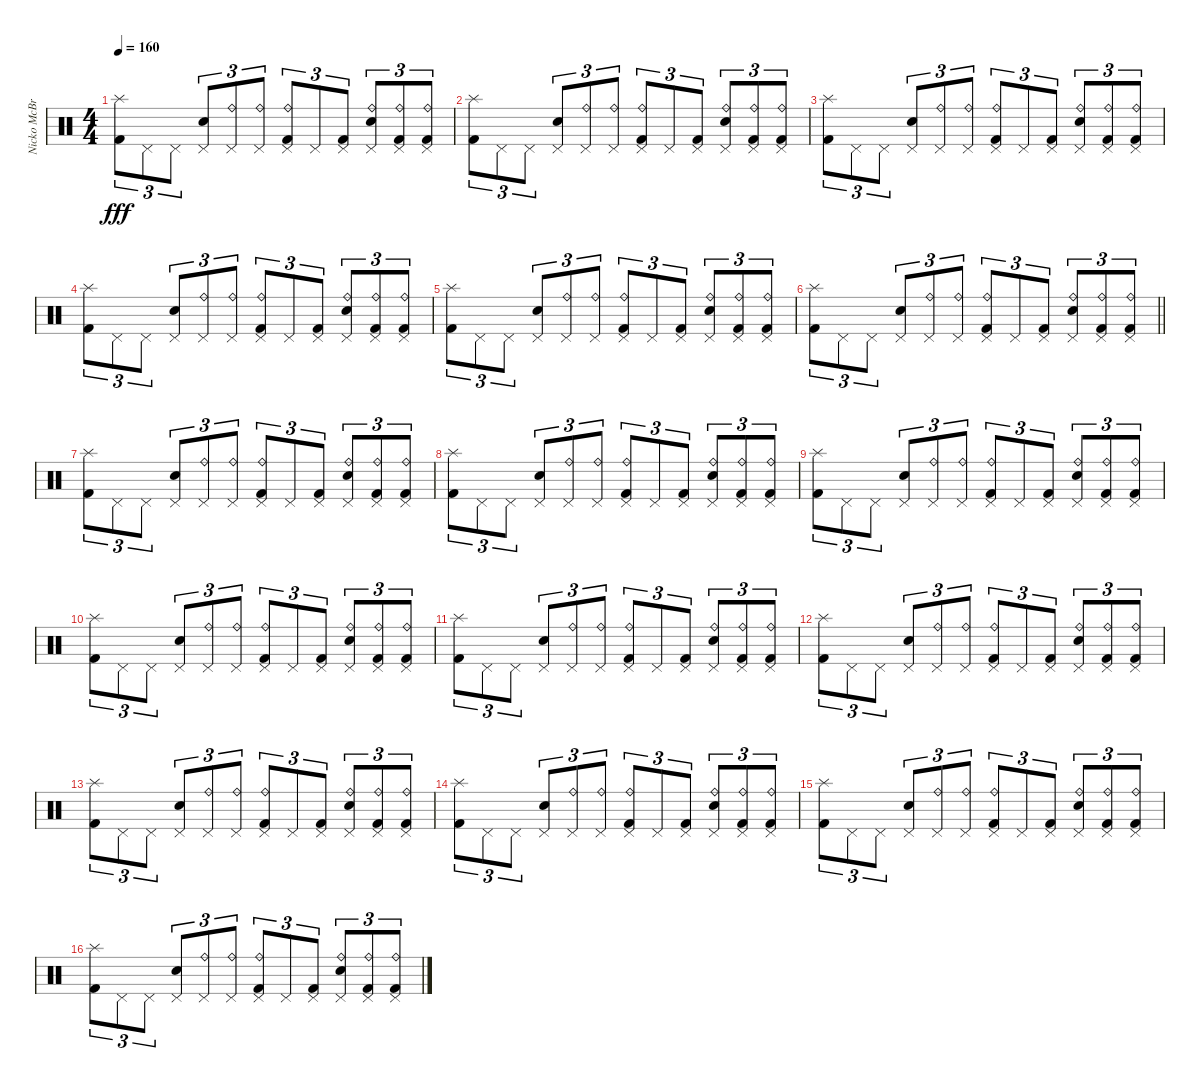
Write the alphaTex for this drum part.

\track ("Nicko McBrian (Drums)" "Nicko McBr") {instrument percussion}
\staff {score}
\articulation defaults
\ts (4 4)
\tempo 160
\clef neutral
\ks c
("Splash (hit)" "Kick (hit) 2").8{tu (3 2) dy fff} "Pedal Hi-Hat (hit)".8{tu (3 2)} "Pedal Hi-Hat (hit)".8{tu (3 2)} ("Pedal Hi-Hat (hit)" "Snare (hit) 2").8{tu (3 2)} ("Pedal Hi-Hat (hit)" "Ride (bell)").8{tu (3 2)} ("Pedal Hi-Hat (hit)" "Ride (bell)").8{tu (3 2)} ("Pedal Hi-Hat (hit)" "Kick (hit) 2" "Ride (bell)").8{tu (3 2)} "Pedal Hi-Hat (hit)".8{tu (3 2)} ("Pedal Hi-Hat (hit)" "Kick (hit) 2").8{tu (3 2)} ("Pedal Hi-Hat (hit)" "Snare (hit) 2" "Ride (bell)").8{tu (3 2)} ("Pedal Hi-Hat (hit)" "Kick (hit) 2" "Ride (bell)").8{tu (3 2)} ("Pedal Hi-Hat (hit)" "Kick (hit) 2" "Ride (bell)").8{tu (3 2)} |
("Splash (hit)" "Kick (hit) 2").8{tu (3 2)} "Pedal Hi-Hat (hit)".8{tu (3 2)} "Pedal Hi-Hat (hit)".8{tu (3 2)} ("Pedal Hi-Hat (hit)" "Snare (hit) 2").8{tu (3 2)} ("Pedal Hi-Hat (hit)" "Ride (bell)").8{tu (3 2)} ("Pedal Hi-Hat (hit)" "Ride (bell)").8{tu (3 2)} ("Pedal Hi-Hat (hit)" "Kick (hit) 2" "Ride (bell)").8{tu (3 2)} "Pedal Hi-Hat (hit)".8{tu (3 2)} ("Pedal Hi-Hat (hit)" "Kick (hit) 2").8{tu (3 2)} ("Pedal Hi-Hat (hit)" "Snare (hit) 2" "Ride (bell)").8{tu (3 2)} ("Pedal Hi-Hat (hit)" "Kick (hit) 2" "Ride (bell)").8{tu (3 2)} ("Pedal Hi-Hat (hit)" "Kick (hit) 2" "Ride (bell)").8{tu (3 2)} |
("Splash (hit)" "Kick (hit) 2").8{tu (3 2)} "Pedal Hi-Hat (hit)".8{tu (3 2)} "Pedal Hi-Hat (hit)".8{tu (3 2)} ("Pedal Hi-Hat (hit)" "Snare (hit) 2").8{tu (3 2)} ("Pedal Hi-Hat (hit)" "Ride (bell)").8{tu (3 2)} ("Pedal Hi-Hat (hit)" "Ride (bell)").8{tu (3 2)} ("Pedal Hi-Hat (hit)" "Kick (hit) 2" "Ride (bell)").8{tu (3 2)} "Pedal Hi-Hat (hit)".8{tu (3 2)} ("Pedal Hi-Hat (hit)" "Kick (hit) 2").8{tu (3 2)} ("Pedal Hi-Hat (hit)" "Snare (hit) 2" "Ride (bell)").8{tu (3 2)} ("Pedal Hi-Hat (hit)" "Kick (hit) 2" "Ride (bell)").8{tu (3 2)} ("Pedal Hi-Hat (hit)" "Kick (hit) 2" "Ride (bell)").8{tu (3 2)} |
("Splash (hit)" "Kick (hit) 2").8{tu (3 2)} "Pedal Hi-Hat (hit)".8{tu (3 2)} "Pedal Hi-Hat (hit)".8{tu (3 2)} ("Pedal Hi-Hat (hit)" "Snare (hit) 2").8{tu (3 2)} ("Pedal Hi-Hat (hit)" "Ride (bell)").8{tu (3 2)} ("Pedal Hi-Hat (hit)" "Ride (bell)").8{tu (3 2)} ("Pedal Hi-Hat (hit)" "Kick (hit) 2" "Ride (bell)").8{tu (3 2)} "Pedal Hi-Hat (hit)".8{tu (3 2)} ("Pedal Hi-Hat (hit)" "Kick (hit) 2").8{tu (3 2)} ("Pedal Hi-Hat (hit)" "Snare (hit) 2" "Ride (bell)").8{tu (3 2)} ("Pedal Hi-Hat (hit)" "Kick (hit) 2" "Ride (bell)").8{tu (3 2)} ("Pedal Hi-Hat (hit)" "Kick (hit) 2" "Ride (bell)").8{tu (3 2)} |
("Splash (hit)" "Kick (hit) 2").8{tu (3 2)} "Pedal Hi-Hat (hit)".8{tu (3 2)} "Pedal Hi-Hat (hit)".8{tu (3 2)} ("Pedal Hi-Hat (hit)" "Snare (hit) 2").8{tu (3 2)} ("Pedal Hi-Hat (hit)" "Ride (bell)").8{tu (3 2)} ("Pedal Hi-Hat (hit)" "Ride (bell)").8{tu (3 2)} ("Pedal Hi-Hat (hit)" "Kick (hit) 2" "Ride (bell)").8{tu (3 2)} "Pedal Hi-Hat (hit)".8{tu (3 2)} ("Pedal Hi-Hat (hit)" "Kick (hit) 2").8{tu (3 2)} ("Pedal Hi-Hat (hit)" "Snare (hit) 2" "Ride (bell)").8{tu (3 2)} ("Pedal Hi-Hat (hit)" "Kick (hit) 2" "Ride (bell)").8{tu (3 2)} ("Pedal Hi-Hat (hit)" "Kick (hit) 2" "Ride (bell)").8{tu (3 2)} |
\barLineRight lightlight
("Splash (hit)" "Kick (hit) 2").8{tu (3 2)} "Pedal Hi-Hat (hit)".8{tu (3 2)} "Pedal Hi-Hat (hit)".8{tu (3 2)} ("Pedal Hi-Hat (hit)" "Snare (hit) 2").8{tu (3 2)} ("Pedal Hi-Hat (hit)" "Ride (bell)").8{tu (3 2)} ("Pedal Hi-Hat (hit)" "Ride (bell)").8{tu (3 2)} ("Pedal Hi-Hat (hit)" "Kick (hit) 2" "Ride (bell)").8{tu (3 2)} "Pedal Hi-Hat (hit)".8{tu (3 2)} ("Pedal Hi-Hat (hit)" "Kick (hit) 2").8{tu (3 2)} ("Pedal Hi-Hat (hit)" "Snare (hit) 2" "Ride (bell)").8{tu (3 2)} ("Pedal Hi-Hat (hit)" "Kick (hit) 2" "Ride (bell)").8{tu (3 2)} ("Pedal Hi-Hat (hit)" "Kick (hit) 2" "Ride (bell)").8{tu (3 2)} |
("Splash (hit)" "Kick (hit) 2").8{tu (3 2)} "Pedal Hi-Hat (hit)".8{tu (3 2)} "Pedal Hi-Hat (hit)".8{tu (3 2)} ("Pedal Hi-Hat (hit)" "Snare (hit) 2").8{tu (3 2)} ("Pedal Hi-Hat (hit)" "Ride (bell)").8{tu (3 2)} ("Pedal Hi-Hat (hit)" "Ride (bell)").8{tu (3 2)} ("Pedal Hi-Hat (hit)" "Kick (hit) 2" "Ride (bell)").8{tu (3 2)} "Pedal Hi-Hat (hit)".8{tu (3 2)} ("Pedal Hi-Hat (hit)" "Kick (hit) 2").8{tu (3 2)} ("Pedal Hi-Hat (hit)" "Snare (hit) 2" "Ride (bell)").8{tu (3 2)} ("Pedal Hi-Hat (hit)" "Kick (hit) 2" "Ride (bell)").8{tu (3 2)} ("Pedal Hi-Hat (hit)" "Kick (hit) 2" "Ride (bell)").8{tu (3 2)} |
("Splash (hit)" "Kick (hit) 2").8{tu (3 2)} "Pedal Hi-Hat (hit)".8{tu (3 2)} "Pedal Hi-Hat (hit)".8{tu (3 2)} ("Pedal Hi-Hat (hit)" "Snare (hit) 2").8{tu (3 2)} ("Pedal Hi-Hat (hit)" "Ride (bell)").8{tu (3 2)} ("Pedal Hi-Hat (hit)" "Ride (bell)").8{tu (3 2)} ("Pedal Hi-Hat (hit)" "Kick (hit) 2" "Ride (bell)").8{tu (3 2)} "Pedal Hi-Hat (hit)".8{tu (3 2)} ("Pedal Hi-Hat (hit)" "Kick (hit) 2").8{tu (3 2)} ("Pedal Hi-Hat (hit)" "Snare (hit) 2" "Ride (bell)").8{tu (3 2)} ("Pedal Hi-Hat (hit)" "Kick (hit) 2" "Ride (bell)").8{tu (3 2)} ("Pedal Hi-Hat (hit)" "Kick (hit) 2" "Ride (bell)").8{tu (3 2)} |
("Splash (hit)" "Kick (hit) 2").8{tu (3 2)} "Pedal Hi-Hat (hit)".8{tu (3 2)} "Pedal Hi-Hat (hit)".8{tu (3 2)} ("Pedal Hi-Hat (hit)" "Snare (hit) 2").8{tu (3 2)} ("Pedal Hi-Hat (hit)" "Ride (bell)").8{tu (3 2)} ("Pedal Hi-Hat (hit)" "Ride (bell)").8{tu (3 2)} ("Pedal Hi-Hat (hit)" "Kick (hit) 2" "Ride (bell)").8{tu (3 2)} "Pedal Hi-Hat (hit)".8{tu (3 2)} ("Pedal Hi-Hat (hit)" "Kick (hit) 2").8{tu (3 2)} ("Pedal Hi-Hat (hit)" "Snare (hit) 2" "Ride (bell)").8{tu (3 2)} ("Pedal Hi-Hat (hit)" "Kick (hit) 2" "Ride (bell)").8{tu (3 2)} ("Pedal Hi-Hat (hit)" "Kick (hit) 2" "Ride (bell)").8{tu (3 2)} |
("Splash (hit)" "Kick (hit) 2").8{tu (3 2)} "Pedal Hi-Hat (hit)".8{tu (3 2)} "Pedal Hi-Hat (hit)".8{tu (3 2)} ("Pedal Hi-Hat (hit)" "Snare (hit) 2").8{tu (3 2)} ("Pedal Hi-Hat (hit)" "Ride (bell)").8{tu (3 2)} ("Pedal Hi-Hat (hit)" "Ride (bell)").8{tu (3 2)} ("Pedal Hi-Hat (hit)" "Kick (hit) 2" "Ride (bell)").8{tu (3 2)} "Pedal Hi-Hat (hit)".8{tu (3 2)} ("Pedal Hi-Hat (hit)" "Kick (hit) 2").8{tu (3 2)} ("Pedal Hi-Hat (hit)" "Snare (hit) 2" "Ride (bell)").8{tu (3 2)} ("Pedal Hi-Hat (hit)" "Kick (hit) 2" "Ride (bell)").8{tu (3 2)} ("Pedal Hi-Hat (hit)" "Kick (hit) 2" "Ride (bell)").8{tu (3 2)} |
("Splash (hit)" "Kick (hit) 2").8{tu (3 2)} "Pedal Hi-Hat (hit)".8{tu (3 2)} "Pedal Hi-Hat (hit)".8{tu (3 2)} ("Pedal Hi-Hat (hit)" "Snare (hit) 2").8{tu (3 2)} ("Pedal Hi-Hat (hit)" "Ride (bell)").8{tu (3 2)} ("Pedal Hi-Hat (hit)" "Ride (bell)").8{tu (3 2)} ("Pedal Hi-Hat (hit)" "Kick (hit) 2" "Ride (bell)").8{tu (3 2)} "Pedal Hi-Hat (hit)".8{tu (3 2)} ("Pedal Hi-Hat (hit)" "Kick (hit) 2").8{tu (3 2)} ("Pedal Hi-Hat (hit)" "Snare (hit) 2" "Ride (bell)").8{tu (3 2)} ("Pedal Hi-Hat (hit)" "Kick (hit) 2" "Ride (bell)").8{tu (3 2)} ("Pedal Hi-Hat (hit)" "Kick (hit) 2" "Ride (bell)").8{tu (3 2)} |
("Splash (hit)" "Kick (hit) 2").8{tu (3 2)} "Pedal Hi-Hat (hit)".8{tu (3 2)} "Pedal Hi-Hat (hit)".8{tu (3 2)} ("Pedal Hi-Hat (hit)" "Snare (hit) 2").8{tu (3 2)} ("Pedal Hi-Hat (hit)" "Ride (bell)").8{tu (3 2)} ("Pedal Hi-Hat (hit)" "Ride (bell)").8{tu (3 2)} ("Pedal Hi-Hat (hit)" "Kick (hit) 2" "Ride (bell)").8{tu (3 2)} "Pedal Hi-Hat (hit)".8{tu (3 2)} ("Pedal Hi-Hat (hit)" "Kick (hit) 2").8{tu (3 2)} ("Pedal Hi-Hat (hit)" "Snare (hit) 2" "Ride (bell)").8{tu (3 2)} ("Pedal Hi-Hat (hit)" "Kick (hit) 2" "Ride (bell)").8{tu (3 2)} ("Pedal Hi-Hat (hit)" "Kick (hit) 2" "Ride (bell)").8{tu (3 2)} |
("Splash (hit)" "Kick (hit) 2").8{tu (3 2)} "Pedal Hi-Hat (hit)".8{tu (3 2)} "Pedal Hi-Hat (hit)".8{tu (3 2)} ("Pedal Hi-Hat (hit)" "Snare (hit) 2").8{tu (3 2)} ("Pedal Hi-Hat (hit)" "Ride (bell)").8{tu (3 2)} ("Pedal Hi-Hat (hit)" "Ride (bell)").8{tu (3 2)} ("Pedal Hi-Hat (hit)" "Kick (hit) 2" "Ride (bell)").8{tu (3 2)} "Pedal Hi-Hat (hit)".8{tu (3 2)} ("Pedal Hi-Hat (hit)" "Kick (hit) 2").8{tu (3 2)} ("Pedal Hi-Hat (hit)" "Snare (hit) 2" "Ride (bell)").8{tu (3 2)} ("Pedal Hi-Hat (hit)" "Kick (hit) 2" "Ride (bell)").8{tu (3 2)} ("Pedal Hi-Hat (hit)" "Kick (hit) 2" "Ride (bell)").8{tu (3 2)} |
("Splash (hit)" "Kick (hit) 2").8{tu (3 2)} "Pedal Hi-Hat (hit)".8{tu (3 2)} "Pedal Hi-Hat (hit)".8{tu (3 2)} ("Pedal Hi-Hat (hit)" "Snare (hit) 2").8{tu (3 2)} ("Pedal Hi-Hat (hit)" "Ride (bell)").8{tu (3 2)} ("Pedal Hi-Hat (hit)" "Ride (bell)").8{tu (3 2)} ("Pedal Hi-Hat (hit)" "Kick (hit) 2" "Ride (bell)").8{tu (3 2)} "Pedal Hi-Hat (hit)".8{tu (3 2)} ("Pedal Hi-Hat (hit)" "Kick (hit) 2").8{tu (3 2)} ("Pedal Hi-Hat (hit)" "Snare (hit) 2" "Ride (bell)").8{tu (3 2)} ("Pedal Hi-Hat (hit)" "Kick (hit) 2" "Ride (bell)").8{tu (3 2)} ("Pedal Hi-Hat (hit)" "Kick (hit) 2" "Ride (bell)").8{tu (3 2)} |
("Splash (hit)" "Kick (hit) 2").8{tu (3 2)} "Pedal Hi-Hat (hit)".8{tu (3 2)} "Pedal Hi-Hat (hit)".8{tu (3 2)} ("Pedal Hi-Hat (hit)" "Snare (hit) 2").8{tu (3 2)} ("Pedal Hi-Hat (hit)" "Ride (bell)").8{tu (3 2)} ("Pedal Hi-Hat (hit)" "Ride (bell)").8{tu (3 2)} ("Pedal Hi-Hat (hit)" "Kick (hit) 2" "Ride (bell)").8{tu (3 2)} "Pedal Hi-Hat (hit)".8{tu (3 2)} ("Pedal Hi-Hat (hit)" "Kick (hit) 2").8{tu (3 2)} ("Pedal Hi-Hat (hit)" "Snare (hit) 2" "Ride (bell)").8{tu (3 2)} ("Pedal Hi-Hat (hit)" "Kick (hit) 2" "Ride (bell)").8{tu (3 2)} ("Pedal Hi-Hat (hit)" "Kick (hit) 2" "Ride (bell)").8{tu (3 2)} |
("Splash (hit)" "Kick (hit) 2").8{tu (3 2)} "Pedal Hi-Hat (hit)".8{tu (3 2)} "Pedal Hi-Hat (hit)".8{tu (3 2)} ("Pedal Hi-Hat (hit)" "Snare (hit) 2").8{tu (3 2)} ("Pedal Hi-Hat (hit)" "Ride (bell)").8{tu (3 2)} ("Pedal Hi-Hat (hit)" "Ride (bell)").8{tu (3 2)} ("Pedal Hi-Hat (hit)" "Kick (hit) 2" "Ride (bell)").8{tu (3 2)} "Pedal Hi-Hat (hit)".8{tu (3 2)} ("Pedal Hi-Hat (hit)" "Kick (hit) 2").8{tu (3 2)} ("Pedal Hi-Hat (hit)" "Snare (hit) 2" "Ride (bell)").8{tu (3 2)} ("Pedal Hi-Hat (hit)" "Kick (hit) 2" "Ride (bell)").8{tu (3 2)} ("Pedal Hi-Hat (hit)" "Kick (hit) 2" "Ride (bell)").8{tu (3 2)}
